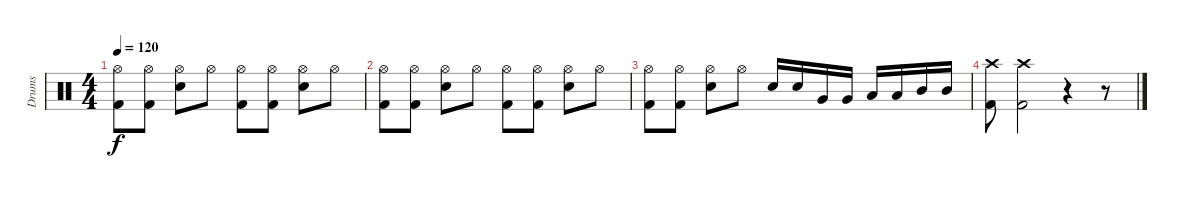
\track ("Drums" "Drums") {instrument percussion}
\staff {score}
\articulation defaults
\ts (4 4)
\tempo 120
\clef neutral
\ks c
("Hi-Hat (open)" "Kick (hit) 2").8{dy f} ("Hi-Hat (open)" "Kick (hit) 2").8 ("Hi-Hat (open)" "Snare (hit) 2").8 "Hi-Hat (open)".8 ("Hi-Hat (open)" "Kick (hit) 2").8 ("Hi-Hat (open)" "Kick (hit) 2").8 ("Hi-Hat (open)" "Snare (hit) 2").8 "Hi-Hat (open)".8 |
("Hi-Hat (open)" "Kick (hit) 2").8 ("Hi-Hat (open)" "Kick (hit) 2").8 ("Hi-Hat (open)" "Snare (hit) 2").8 "Hi-Hat (open)".8 ("Hi-Hat (open)" "Kick (hit) 2").8 ("Hi-Hat (open)" "Kick (hit) 2").8 ("Hi-Hat (open)" "Snare (hit) 2").8 "Hi-Hat (open)".8 |
("Hi-Hat (open)" "Kick (hit) 2").8 ("Hi-Hat (open)" "Kick (hit) 2").8 ("Hi-Hat (open)" "Snare (hit) 2").8 "Hi-Hat (open)".8 "Snare (hit) 2".16 "Snare (hit) 2".16 "Very Low Tom (hit)".16 "Very Low Tom (hit)".16 "Low Tom (hit)".16 "Low Tom (hit)".16 "Mid Tom (hit)".16 "Mid Tom (hit)".16 |
("Crash high (hit)" "Kick (hit) 2").8 ("Crash high (hit)" "Kick (hit) 2").2 r.4 r.8
